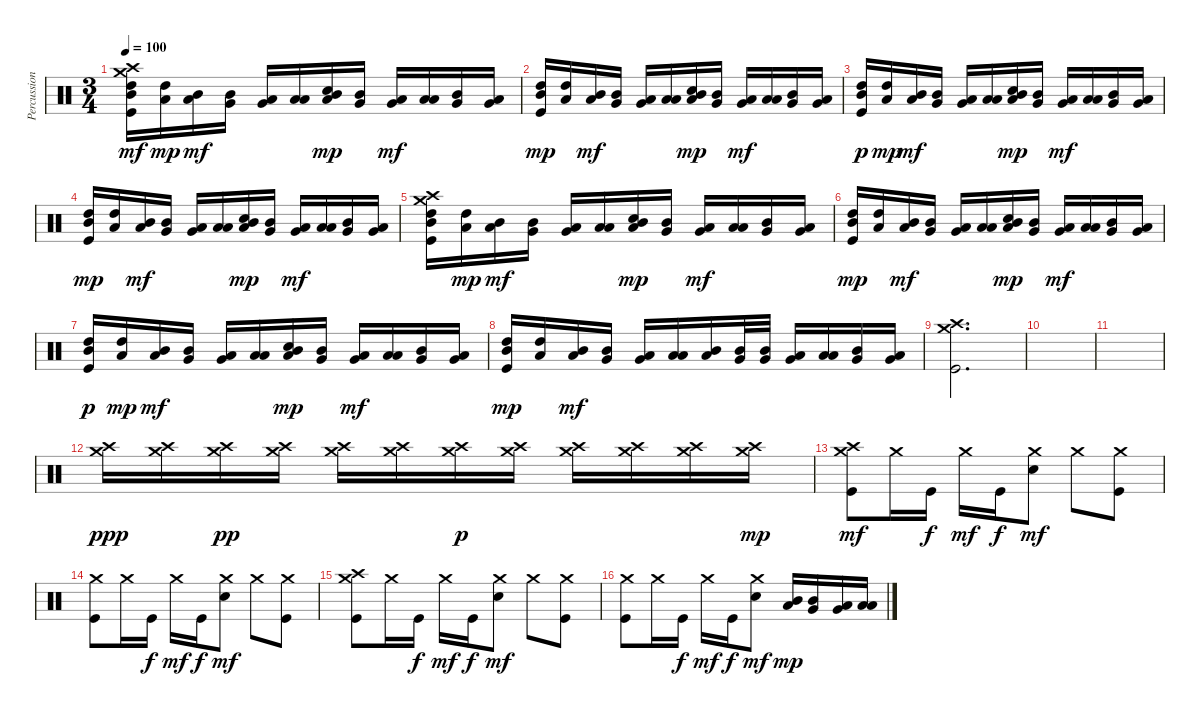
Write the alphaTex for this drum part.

\track ("Percussions" "Percussion") {instrument percussion}
\staff {score}
\articulation defaults
\ts (3 4)
\tempo 100
\clef neutral
\ks c
("Kick (hit)" "Mid Tom (hit)" "High Tom (hit)" "Crash high (hit)" "Crash medium (hit)").16{dy mf} ("Low Tom (hit)" "High Tom (hit)").16{dy mp} ("Low Tom (hit)" "Mid Tom (hit)").16{dy mf} ("Very Low Tom (hit)" "Mid Tom (hit)").16 ("Very Low Tom (hit)" "Low Tom (hit)").16 ("Low Floor Tom (hit)" "Low Tom (hit)").16 ("Electric Snare (hit)" "Low Tom (hit)" "Mid Tom (hit)").16{dy mp} ("Very Low Tom (hit)" "Mid Tom (hit)").16 ("Very Low Tom (hit)" "Low Tom (hit)").16{dy mf} ("Low Floor Tom (hit)" "Low Tom (hit)").16 ("Mid Tom (hit)" "Very Low Tom (hit)").16 ("Low Floor Tom (hit)" "Very Low Tom (hit)").16 |
("Kick (hit)" "Mid Tom (hit)" "High Tom (hit)").16{dy mp} ("Low Tom (hit)" "High Tom (hit)").16 ("Low Tom (hit)" "Mid Tom (hit)").16{dy mf} ("Very Low Tom (hit)" "Mid Tom (hit)").16 ("Very Low Tom (hit)" "Low Tom (hit)").16 ("Low Floor Tom (hit)" "Low Tom (hit)").16 ("Electric Snare (hit)" "Low Tom (hit)" "Mid Tom (hit)").16{dy mp} ("Very Low Tom (hit)" "Mid Tom (hit)").16 ("Very Low Tom (hit)" "Low Tom (hit)").16{dy mf} ("Low Floor Tom (hit)" "Low Tom (hit)").16 ("Mid Tom (hit)" "Very Low Tom (hit)").16 ("Low Floor Tom (hit)" "Very Low Tom (hit)").16 |
("Kick (hit)" "Mid Tom (hit)" "High Tom (hit)").16{dy p} ("Low Tom (hit)" "High Tom (hit)").16{dy mp} ("Low Tom (hit)" "Mid Tom (hit)").16{dy mf} ("Very Low Tom (hit)" "Mid Tom (hit)").16 ("Very Low Tom (hit)" "Low Tom (hit)").16 ("Low Floor Tom (hit)" "Low Tom (hit)").16 ("Electric Snare (hit)" "Low Tom (hit)" "Mid Tom (hit)").16{dy mp} ("Very Low Tom (hit)" "Mid Tom (hit)").16 ("Very Low Tom (hit)" "Low Tom (hit)").16{dy mf} ("Low Floor Tom (hit)" "Low Tom (hit)").16 ("Mid Tom (hit)" "Very Low Tom (hit)").16 ("Low Floor Tom (hit)" "Very Low Tom (hit)").16 |
("Kick (hit)" "Mid Tom (hit)" "High Tom (hit)").16{dy mp} ("Low Tom (hit)" "High Tom (hit)").16 ("Low Tom (hit)" "Mid Tom (hit)").16{dy mf} ("Very Low Tom (hit)" "Mid Tom (hit)").16 ("Very Low Tom (hit)" "Low Tom (hit)").16 ("Low Floor Tom (hit)" "Low Tom (hit)").16 ("Electric Snare (hit)" "Low Tom (hit)" "Mid Tom (hit)").16{dy mp} ("Very Low Tom (hit)" "Mid Tom (hit)").16 ("Very Low Tom (hit)" "Low Tom (hit)").16{dy mf} ("Low Floor Tom (hit)" "Low Tom (hit)").16 ("Mid Tom (hit)" "Very Low Tom (hit)").16 ("Low Floor Tom (hit)" "Very Low Tom (hit)").16 |
("Kick (hit)" "Mid Tom (hit)" "High Tom (hit)" "Crash high (hit)" "Crash medium (hit)").16 ("Low Tom (hit)" "High Tom (hit)").16{dy mp} ("Low Tom (hit)" "Mid Tom (hit)").16{dy mf} ("Very Low Tom (hit)" "Mid Tom (hit)").16 ("Very Low Tom (hit)" "Low Tom (hit)").16 ("Low Floor Tom (hit)" "Low Tom (hit)").16 ("Electric Snare (hit)" "Low Tom (hit)" "Mid Tom (hit)").16{dy mp} ("Very Low Tom (hit)" "Mid Tom (hit)").16 ("Very Low Tom (hit)" "Low Tom (hit)").16{dy mf} ("Low Floor Tom (hit)" "Low Tom (hit)").16 ("Mid Tom (hit)" "Very Low Tom (hit)").16 ("Low Floor Tom (hit)" "Very Low Tom (hit)").16 |
("Kick (hit)" "Mid Tom (hit)" "High Tom (hit)").16{dy mp} ("Low Tom (hit)" "High Tom (hit)").16 ("Low Tom (hit)" "Mid Tom (hit)").16{dy mf} ("Very Low Tom (hit)" "Mid Tom (hit)").16 ("Very Low Tom (hit)" "Low Tom (hit)").16 ("Low Floor Tom (hit)" "Low Tom (hit)").16 ("Electric Snare (hit)" "Low Tom (hit)" "Mid Tom (hit)").16{dy mp} ("Very Low Tom (hit)" "Mid Tom (hit)").16 ("Very Low Tom (hit)" "Low Tom (hit)").16{dy mf} ("Low Floor Tom (hit)" "Low Tom (hit)").16 ("Mid Tom (hit)" "Very Low Tom (hit)").16 ("Low Floor Tom (hit)" "Very Low Tom (hit)").16 |
("Kick (hit)" "Mid Tom (hit)" "High Tom (hit)").16{dy p} ("Low Tom (hit)" "High Tom (hit)").16{dy mp} ("Low Tom (hit)" "Mid Tom (hit)").16{dy mf} ("Very Low Tom (hit)" "Mid Tom (hit)").16 ("Very Low Tom (hit)" "Low Tom (hit)").16 ("Low Floor Tom (hit)" "Low Tom (hit)").16 ("Electric Snare (hit)" "Low Tom (hit)" "Mid Tom (hit)").16{dy mp} ("Very Low Tom (hit)" "Mid Tom (hit)").16 ("Very Low Tom (hit)" "Low Tom (hit)").16{dy mf} ("Low Floor Tom (hit)" "Low Tom (hit)").16 ("Mid Tom (hit)" "Very Low Tom (hit)").16 ("Low Floor Tom (hit)" "Very Low Tom (hit)").16 |
("Kick (hit)" "Mid Tom (hit)" "High Tom (hit)").16{dy mp} ("Low Tom (hit)" "High Tom (hit)").16 ("Low Tom (hit)" "Mid Tom (hit)").16{dy mf} ("Very Low Tom (hit)" "Mid Tom (hit)").16 ("Very Low Tom (hit)" "Low Tom (hit)").16 ("Low Floor Tom (hit)" "Low Tom (hit)").16 ("Low Tom (hit)" "Mid Tom (hit)").16 ("Very Low Tom (hit)" "Mid Tom (hit)").32 ("Very Low Tom (hit)" "Mid Tom (hit)").32 ("Very Low Tom (hit)" "Low Tom (hit)").16 ("Low Floor Tom (hit)" "Low Tom (hit)").16 ("Mid Tom (hit)" "Very Low Tom (hit)").16 ("Low Floor Tom (hit)" "Very Low Tom (hit)").16 |
("Kick (hit)" "Crash high (hit)" "Crash medium (hit)").2{d} |
|
|
("Crash medium (hit)" "Crash high (hit)").16{dy ppp} ("Crash medium (hit)" "Crash high (hit)").16 ("Crash medium (hit)" "Crash high (hit)").16{dy pp} ("Crash medium (hit)" "Crash high (hit)").16 ("Crash medium (hit)" "Crash high (hit)").16 ("Crash medium (hit)" "Crash high (hit)").16 ("Crash medium (hit)" "Crash high (hit)").16{dy p} ("Crash medium (hit)" "Crash high (hit)").16 ("Crash medium (hit)" "Crash high (hit)").16 ("Crash high (hit)" "Crash medium (hit)").16 ("Crash high (hit)" "Crash medium (hit)").16 ("Crash high (hit)" "Crash medium (hit)").16{dy mp} |
("Kick (hit)" "Crash medium (hit)" "Crash high (hit)").8{dy mf} "Crash medium (hit)".16 "Kick (hit)".16{dy f} "Crash medium (hit)".16{dy mf} "Kick (hit)".16{dy f} ("Electric Snare (hit)" "Crash medium (hit)").8{dy mf} "Crash medium (hit)".8 ("Kick (hit)" "Crash medium (hit)").8 |
("Kick (hit)" "Crash medium (hit)").8 "Crash medium (hit)".16 "Kick (hit)".16{dy f} "Crash medium (hit)".16{dy mf} "Kick (hit)".16{dy f} ("Electric Snare (hit)" "Crash medium (hit)").8{dy mf} "Crash medium (hit)".8 ("Kick (hit)" "Crash medium (hit)").8 |
("Kick (hit)" "Crash medium (hit)" "Crash high (hit)").8 "Crash medium (hit)".16 "Kick (hit)".16{dy f} "Crash medium (hit)".16{dy mf} "Kick (hit)".16{dy f} ("Electric Snare (hit)" "Crash medium (hit)").8{dy mf} "Crash medium (hit)".8 ("Kick (hit)" "Crash medium (hit)").8 |
("Kick (hit)" "Crash medium (hit)").8 "Crash medium (hit)".16 "Kick (hit)".16{dy f} "Crash medium (hit)".16{dy mf} "Kick (hit)".16{dy f} ("Electric Snare (hit)" "Crash medium (hit)").8{dy mf} ("Low Tom (hit)" "Mid Tom (hit)").16{dy mp} ("Very Low Tom (hit)" "Mid Tom (hit)").16 ("Very Low Tom (hit)" "Low Tom (hit)").16 ("Low Floor Tom (hit)" "Low Tom (hit)").16
